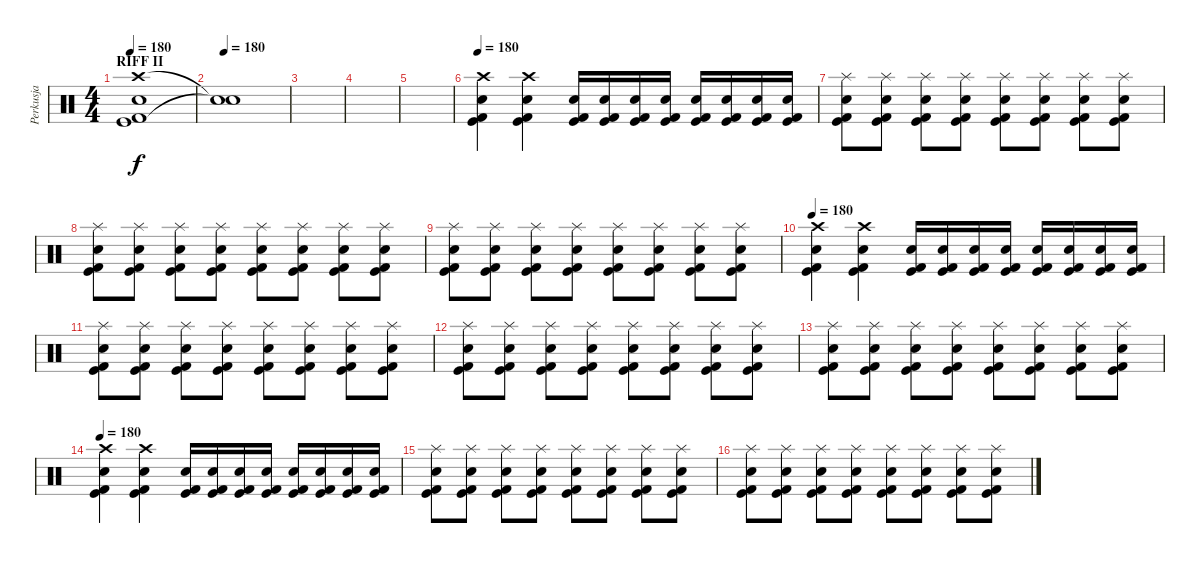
\track ("Perkusja" "Perkusja") {instrument percussion}
\staff {score}
\articulation defaults
\ts (4 4)
\section ("" "RIFF II")
\tempo 180
\clef neutral
\ks c
("Crash high (hit)" "Kick (hit)" "Snare (hit) 2" "Kick (hit) 2").1{dy f} |
\tempo 180
("Snare (hit)"{t} "Snare (hit)"{t}).1 |
|
|
|
\tempo 180
("Crash high (hit)" "Snare (hit) 2" "Kick (hit) 2" "Kick (hit)").4 ("Crash high (hit)" "Electric Snare (hit)" "Kick (hit) 2" "Kick (hit)").4 ("Snare (hit) 2" "Kick (hit) 2" "Kick (hit)").16 ("Snare (hit) 2" "Kick (hit) 2" "Kick (hit)").16 ("Snare (hit) 2" "Kick (hit) 2" "Kick (hit)").16 ("Snare (hit) 2" "Kick (hit) 2" "Kick (hit)").16 ("Snare (hit) 2" "Kick (hit) 2" "Kick (hit)").16 ("Snare (hit) 2" "Kick (hit) 2" "Kick (hit)").16 ("Snare (hit) 2" "Kick (hit) 2" "Kick (hit)").16 ("Snare (hit) 2" "Kick (hit) 2" "Kick (hit)").16 |
("Kick (hit)" "Kick (hit) 2" "Snare (hit) 2" "Splash (hit)").8 ("Kick (hit)" "Kick (hit) 2" "Snare (hit) 2" "Splash (hit)").8 ("Kick (hit)" "Kick (hit) 2" "Snare (hit) 2" "Splash (hit)").8 ("Kick (hit)" "Kick (hit) 2" "Snare (hit) 2" "Splash (hit)").8 ("Kick (hit)" "Kick (hit) 2" "Snare (hit) 2" "Splash (hit)").8 ("Kick (hit)" "Kick (hit) 2" "Snare (hit) 2" "Splash (hit)").8 ("Kick (hit)" "Kick (hit) 2" "Snare (hit) 2" "Splash (hit)").8 ("Kick (hit)" "Kick (hit) 2" "Snare (hit) 2" "Splash (hit)").8 |
("Kick (hit)" "Kick (hit) 2" "Snare (hit) 2" "Splash (hit)").8 ("Kick (hit)" "Kick (hit) 2" "Snare (hit) 2" "Splash (hit)").8 ("Kick (hit)" "Kick (hit) 2" "Snare (hit) 2" "Splash (hit)").8 ("Kick (hit)" "Kick (hit) 2" "Snare (hit) 2" "Splash (hit)").8 ("Kick (hit)" "Kick (hit) 2" "Snare (hit) 2" "Splash (hit)").8 ("Kick (hit)" "Kick (hit) 2" "Snare (hit) 2" "Splash (hit)").8 ("Kick (hit)" "Kick (hit) 2" "Snare (hit) 2" "Splash (hit)").8 ("Kick (hit)" "Kick (hit) 2" "Snare (hit) 2" "Splash (hit)").8 |
("Kick (hit)" "Kick (hit) 2" "Snare (hit) 2" "Splash (hit)").8 ("Kick (hit)" "Kick (hit) 2" "Snare (hit) 2" "Splash (hit)").8 ("Kick (hit)" "Kick (hit) 2" "Snare (hit) 2" "Splash (hit)").8 ("Kick (hit)" "Kick (hit) 2" "Snare (hit) 2" "Splash (hit)").8 ("Kick (hit)" "Kick (hit) 2" "Snare (hit) 2" "Splash (hit)").8 ("Kick (hit)" "Kick (hit) 2" "Snare (hit) 2" "Splash (hit)").8 ("Kick (hit)" "Kick (hit) 2" "Snare (hit) 2" "Splash (hit)").8 ("Kick (hit)" "Kick (hit) 2" "Snare (hit) 2" "Splash (hit)").8 |
\tempo 180
("Crash high (hit)" "Snare (hit) 2" "Kick (hit) 2" "Kick (hit)").4 ("Crash high (hit)" "Electric Snare (hit)" "Kick (hit) 2" "Kick (hit)").4 ("Snare (hit) 2" "Kick (hit) 2" "Kick (hit)").16 ("Snare (hit) 2" "Kick (hit) 2" "Kick (hit)").16 ("Snare (hit) 2" "Kick (hit) 2" "Kick (hit)").16 ("Snare (hit) 2" "Kick (hit) 2" "Kick (hit)").16 ("Snare (hit) 2" "Kick (hit) 2" "Kick (hit)").16 ("Snare (hit) 2" "Kick (hit) 2" "Kick (hit)").16 ("Snare (hit) 2" "Kick (hit) 2" "Kick (hit)").16 ("Snare (hit) 2" "Kick (hit) 2" "Kick (hit)").16 |
("Kick (hit)" "Kick (hit) 2" "Snare (hit) 2" "Splash (hit)").8 ("Kick (hit)" "Kick (hit) 2" "Snare (hit) 2" "Splash (hit)").8 ("Kick (hit)" "Kick (hit) 2" "Snare (hit) 2" "Splash (hit)").8 ("Kick (hit)" "Kick (hit) 2" "Snare (hit) 2" "Splash (hit)").8 ("Kick (hit)" "Kick (hit) 2" "Snare (hit) 2" "Splash (hit)").8 ("Kick (hit)" "Kick (hit) 2" "Snare (hit) 2" "Splash (hit)").8 ("Kick (hit)" "Kick (hit) 2" "Snare (hit) 2" "Splash (hit)").8 ("Kick (hit)" "Kick (hit) 2" "Snare (hit) 2" "Splash (hit)").8 |
("Kick (hit)" "Kick (hit) 2" "Snare (hit) 2" "Splash (hit)").8 ("Kick (hit)" "Kick (hit) 2" "Snare (hit) 2" "Splash (hit)").8 ("Kick (hit)" "Kick (hit) 2" "Snare (hit) 2" "Splash (hit)").8 ("Kick (hit)" "Kick (hit) 2" "Snare (hit) 2" "Splash (hit)").8 ("Kick (hit)" "Kick (hit) 2" "Snare (hit) 2" "Splash (hit)").8 ("Kick (hit)" "Kick (hit) 2" "Snare (hit) 2" "Splash (hit)").8 ("Kick (hit)" "Kick (hit) 2" "Snare (hit) 2" "Splash (hit)").8 ("Kick (hit)" "Kick (hit) 2" "Snare (hit) 2" "Splash (hit)").8 |
("Kick (hit)" "Kick (hit) 2" "Snare (hit) 2" "Splash (hit)").8 ("Kick (hit)" "Kick (hit) 2" "Snare (hit) 2" "Splash (hit)").8 ("Kick (hit)" "Kick (hit) 2" "Snare (hit) 2" "Splash (hit)").8 ("Kick (hit)" "Kick (hit) 2" "Snare (hit) 2" "Splash (hit)").8 ("Kick (hit)" "Kick (hit) 2" "Snare (hit) 2" "Splash (hit)").8 ("Kick (hit)" "Kick (hit) 2" "Snare (hit) 2" "Splash (hit)").8 ("Kick (hit)" "Kick (hit) 2" "Snare (hit) 2" "Splash (hit)").8 ("Kick (hit)" "Kick (hit) 2" "Snare (hit) 2" "Splash (hit)").8 |
\tempo 180
("Crash high (hit)" "Snare (hit) 2" "Kick (hit) 2" "Kick (hit)").4 ("Crash high (hit)" "Electric Snare (hit)" "Kick (hit) 2" "Kick (hit)").4 ("Snare (hit) 2" "Kick (hit) 2" "Kick (hit)").16 ("Snare (hit) 2" "Kick (hit) 2" "Kick (hit)").16 ("Snare (hit) 2" "Kick (hit) 2" "Kick (hit)").16 ("Snare (hit) 2" "Kick (hit) 2" "Kick (hit)").16 ("Snare (hit) 2" "Kick (hit) 2" "Kick (hit)").16 ("Snare (hit) 2" "Kick (hit) 2" "Kick (hit)").16 ("Snare (hit) 2" "Kick (hit) 2" "Kick (hit)").16 ("Snare (hit) 2" "Kick (hit) 2" "Kick (hit)").16 |
("Kick (hit)" "Kick (hit) 2" "Snare (hit) 2" "Splash (hit)").8 ("Kick (hit)" "Kick (hit) 2" "Snare (hit) 2" "Splash (hit)").8 ("Kick (hit)" "Kick (hit) 2" "Snare (hit) 2" "Splash (hit)").8 ("Kick (hit)" "Kick (hit) 2" "Snare (hit) 2" "Splash (hit)").8 ("Kick (hit)" "Kick (hit) 2" "Snare (hit) 2" "Splash (hit)").8 ("Kick (hit)" "Kick (hit) 2" "Snare (hit) 2" "Splash (hit)").8 ("Kick (hit)" "Kick (hit) 2" "Snare (hit) 2" "Splash (hit)").8 ("Kick (hit)" "Kick (hit) 2" "Snare (hit) 2" "Splash (hit)").8 |
("Kick (hit)" "Kick (hit) 2" "Snare (hit) 2" "Splash (hit)").8 ("Kick (hit)" "Kick (hit) 2" "Snare (hit) 2" "Splash (hit)").8 ("Kick (hit)" "Kick (hit) 2" "Snare (hit) 2" "Splash (hit)").8 ("Kick (hit)" "Kick (hit) 2" "Snare (hit) 2" "Splash (hit)").8 ("Kick (hit)" "Kick (hit) 2" "Snare (hit) 2" "Splash (hit)").8 ("Kick (hit)" "Kick (hit) 2" "Snare (hit) 2" "Splash (hit)").8 ("Kick (hit)" "Kick (hit) 2" "Snare (hit) 2" "Splash (hit)").8 ("Kick (hit)" "Kick (hit) 2" "Snare (hit) 2" "Splash (hit)").8
